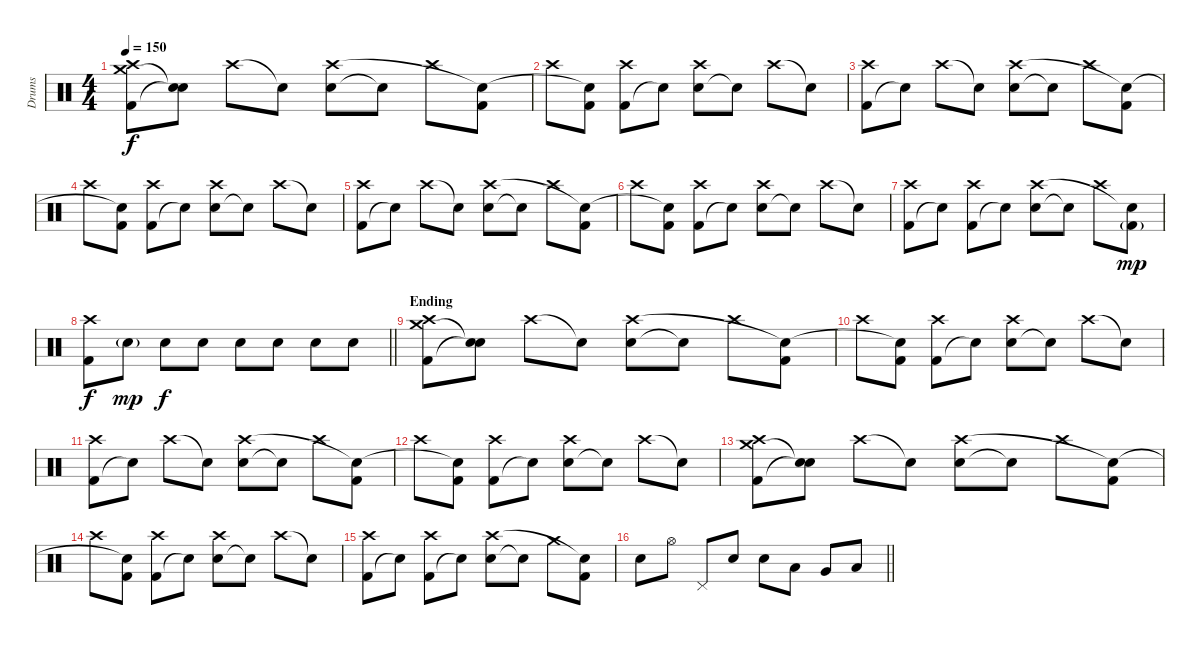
\track ("Drums" "Drums") {instrument percussion}
\staff {score}
\articulation defaults
\ts (4 4)
\tempo 150
\clef neutral
\ks c
("Kick (hit) 2" "Crash medium (hit)" "Crash high (hit)").8{dy f} ("Snare (hit)"{t} "Snare (hit)"{t}).8 "Crash high (hit)".8 "Snare (hit)"{t}.8 ("Electric Snare (hit)" "Crash high (hit)").8 "Snare (hit)"{t}.8 "Crash high (hit)".8 ("Kick (hit) 2" "Snare (hit)"{t}).8 |
"Crash high (hit)".8 ("Kick (hit) 2" "Snare (hit)"{t}).8 ("Kick (hit) 2" "Crash high (hit)").8 "Snare (hit)"{t}.8 ("Electric Snare (hit)" "Crash high (hit)").8 "Snare (hit)"{t}.8 "Crash high (hit)".8 "Snare (hit)"{t}.8 |
("Kick (hit) 2" "Crash high (hit)").8 "Snare (hit)"{t}.8 "Crash high (hit)".8 "Snare (hit)"{t}.8 ("Electric Snare (hit)" "Crash high (hit)").8 "Snare (hit)"{t}.8 "Crash high (hit)".8 ("Kick (hit) 2" "Snare (hit)"{t}).8 |
"Crash high (hit)".8 ("Kick (hit) 2" "Snare (hit)"{t}).8 ("Kick (hit) 2" "Crash high (hit)").8 "Snare (hit)"{t}.8 ("Electric Snare (hit)" "Crash high (hit)").8 "Snare (hit)"{t}.8 "Crash high (hit)".8 "Snare (hit)"{t}.8 |
("Kick (hit) 2" "Crash high (hit)").8 "Snare (hit)"{t}.8 "Crash high (hit)".8 "Snare (hit)"{t}.8 ("Electric Snare (hit)" "Crash high (hit)").8 "Snare (hit)"{t}.8 "Crash high (hit)".8 ("Kick (hit) 2" "Snare (hit)"{t}).8 |
"Crash high (hit)".8 ("Kick (hit) 2" "Snare (hit)"{t}).8 ("Kick (hit) 2" "Crash high (hit)").8 "Snare (hit)"{t}.8 ("Electric Snare (hit)" "Crash high (hit)").8 "Snare (hit)"{t}.8 "Crash high (hit)".8 "Snare (hit)"{t}.8 |
("Kick (hit) 2" "Crash high (hit)").8 "Snare (hit)"{t}.8 ("Kick (hit) 2" "Crash high (hit)").8 "Snare (hit)"{t}.8 ("Electric Snare (hit)" "Crash high (hit)").8 "Snare (hit)"{t}.8 "Crash high (hit)".8 ("Kick (hit) 2"{g} "Snare (hit)"{t}).8{dy mp} |
\barLineRight lightlight
("Kick (hit) 2" "Crash high (hit)").8{dy f} "Electric Snare (hit)"{g}.8{dy mp} "Electric Snare (hit)".8{dy f} "Electric Snare (hit)".8 "Electric Snare (hit)".8 "Electric Snare (hit)".8 "Electric Snare (hit)".8 "Electric Snare (hit)".8 |
\section ("" "Ending")
("Kick (hit) 2" "Crash medium (hit)" "Crash high (hit)").8 ("Snare (hit)"{t} "Snare (hit)"{t}).8 "Crash high (hit)".8 "Snare (hit)"{t}.8 ("Electric Snare (hit)" "Crash high (hit)").8 "Snare (hit)"{t}.8 "Crash high (hit)".8 ("Kick (hit) 2" "Snare (hit)"{t}).8 |
"Crash high (hit)".8 ("Kick (hit) 2" "Snare (hit)"{t}).8 ("Kick (hit) 2" "Crash high (hit)").8 "Snare (hit)"{t}.8 ("Electric Snare (hit)" "Crash high (hit)").8 "Snare (hit)"{t}.8 "Crash high (hit)".8 "Snare (hit)"{t}.8 |
("Kick (hit) 2" "Crash high (hit)").8 "Snare (hit)"{t}.8 "Crash high (hit)".8 "Snare (hit)"{t}.8 ("Electric Snare (hit)" "Crash high (hit)").8 "Snare (hit)"{t}.8 "Crash high (hit)".8 ("Kick (hit) 2" "Snare (hit)"{t}).8 |
"Crash high (hit)".8 ("Kick (hit) 2" "Snare (hit)"{t}).8 ("Kick (hit) 2" "Crash high (hit)").8 "Snare (hit)"{t}.8 ("Electric Snare (hit)" "Crash high (hit)").8 "Snare (hit)"{t}.8 "Crash high (hit)".8 "Snare (hit)"{t}.8 |
("Kick (hit) 2" "Crash medium (hit)" "Crash high (hit)").8 ("Snare (hit)"{t} "Snare (hit)"{t}).8 "Crash high (hit)".8 "Snare (hit)"{t}.8 ("Electric Snare (hit)" "Crash high (hit)").8 "Snare (hit)"{t}.8 "Crash high (hit)".8 ("Kick (hit) 2" "Snare (hit)"{t}).8 |
"Crash high (hit)".8 ("Kick (hit) 2" "Snare (hit)"{t}).8 ("Kick (hit) 2" "Crash high (hit)").8 "Snare (hit)"{t}.8 ("Electric Snare (hit)" "Crash high (hit)").8 "Snare (hit)"{t}.8 "Crash high (hit)".8 "Snare (hit)"{t}.8 |
("Kick (hit) 2" "Crash high (hit)").8 "Snare (hit)"{t}.8 ("Kick (hit) 2" "Crash high (hit)").8 "Snare (hit)"{t}.8 ("Electric Snare (hit)" "Crash high (hit)").8 "Snare (hit)"{t}.8 "Crash medium (hit)".8 ("Kick (hit) 2" "Snare (hit)"{t}).8 |
\barLineRight lightlight "Electric Snare (hit)".8 "Hi-Hat (open)".8 "Pedal Hi-Hat (hit)".8 "Electric Snare (hit)".8 "Electric Snare (hit)".8 "Low Tom (hit)".8 "Very Low Tom (hit)".8 "Low Floor Tom (hit)".8
